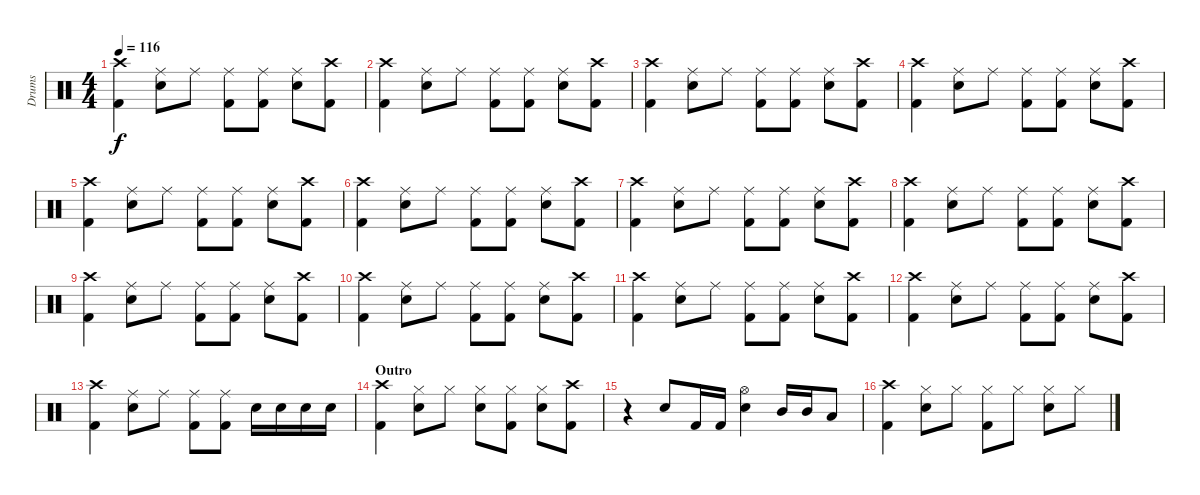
\track ("Drums" "Drums") {instrument percussion}
\staff {score}
\articulation defaults
\ts (4 4)
\tempo 116
\clef neutral
\ks c
("Crash high (hit)" "Kick (hit) 2").4{dy f} ("Ride (middle)" "Snare (hit) 2").8 "Ride (middle)".8 ("Ride (middle)" "Kick (hit) 2").8 ("Ride (middle)" "Kick (hit) 2").8 ("Ride (middle)" "Snare (hit) 2").8 ("Crash high (hit)" "Kick (hit) 2").8 |
("Crash high (hit)" "Kick (hit) 2").4 ("Ride (middle)" "Snare (hit) 2").8 "Ride (middle)".8 ("Ride (middle)" "Kick (hit) 2").8 ("Ride (middle)" "Kick (hit) 2").8 ("Ride (middle)" "Snare (hit) 2").8 ("Crash high (hit)" "Kick (hit) 2").8 |
("Crash high (hit)" "Kick (hit) 2").4 ("Ride (middle)" "Snare (hit) 2").8 "Ride (middle)".8 ("Ride (middle)" "Kick (hit) 2").8 ("Ride (middle)" "Kick (hit) 2").8 ("Ride (middle)" "Snare (hit) 2").8 ("Crash high (hit)" "Kick (hit) 2").8 |
("Crash high (hit)" "Kick (hit) 2").4 ("Ride (middle)" "Snare (hit) 2").8 "Ride (middle)".8 ("Ride (middle)" "Kick (hit) 2").8 ("Ride (middle)" "Kick (hit) 2").8 ("Ride (middle)" "Snare (hit) 2").8 ("Crash high (hit)" "Kick (hit) 2").8 |
("Crash high (hit)" "Kick (hit) 2").4 ("Ride (middle)" "Snare (hit) 2").8 "Ride (middle)".8 ("Ride (middle)" "Kick (hit) 2").8 ("Ride (middle)" "Kick (hit) 2").8 ("Ride (middle)" "Snare (hit) 2").8 ("Crash high (hit)" "Kick (hit) 2").8 |
("Crash high (hit)" "Kick (hit) 2").4 ("Ride (middle)" "Snare (hit) 2").8 "Ride (middle)".8 ("Ride (middle)" "Kick (hit) 2").8 ("Ride (middle)" "Kick (hit) 2").8 ("Ride (middle)" "Snare (hit) 2").8 ("Crash high (hit)" "Kick (hit) 2").8 |
("Crash high (hit)" "Kick (hit) 2").4 ("Ride (middle)" "Snare (hit) 2").8 "Ride (middle)".8 ("Ride (middle)" "Kick (hit) 2").8 ("Ride (middle)" "Kick (hit) 2").8 ("Ride (middle)" "Snare (hit) 2").8 ("Crash high (hit)" "Kick (hit) 2").8 |
("Crash high (hit)" "Kick (hit) 2").4 ("Ride (middle)" "Snare (hit) 2").8 "Ride (middle)".8 ("Ride (middle)" "Kick (hit) 2").8 ("Ride (middle)" "Kick (hit) 2").8 ("Ride (middle)" "Snare (hit) 2").8 ("Crash high (hit)" "Kick (hit) 2").8 |
("Crash high (hit)" "Kick (hit) 2").4 ("Ride (middle)" "Snare (hit) 2").8 "Ride (middle)".8 ("Ride (middle)" "Kick (hit) 2").8 ("Ride (middle)" "Kick (hit) 2").8 ("Ride (middle)" "Snare (hit) 2").8 ("Crash high (hit)" "Kick (hit) 2").8 |
("Crash high (hit)" "Kick (hit) 2").4 ("Ride (middle)" "Snare (hit) 2").8 "Ride (middle)".8 ("Ride (middle)" "Kick (hit) 2").8 ("Ride (middle)" "Kick (hit) 2").8 ("Ride (middle)" "Snare (hit) 2").8 ("Crash high (hit)" "Kick (hit) 2").8 |
("Crash high (hit)" "Kick (hit) 2").4 ("Ride (middle)" "Snare (hit) 2").8 "Ride (middle)".8 ("Ride (middle)" "Kick (hit) 2").8 ("Ride (middle)" "Kick (hit) 2").8 ("Ride (middle)" "Snare (hit) 2").8 ("Crash high (hit)" "Kick (hit) 2").8 |
("Crash high (hit)" "Kick (hit) 2").4 ("Ride (middle)" "Snare (hit) 2").8 "Ride (middle)".8 ("Ride (middle)" "Kick (hit) 2").8 ("Ride (middle)" "Kick (hit) 2").8 ("Ride (middle)" "Snare (hit) 2").8 ("Crash high (hit)" "Kick (hit) 2").8 |
("Crash high (hit)" "Kick (hit) 2").4 ("Ride (middle)" "Snare (hit) 2").8 "Ride (middle)".8 ("Ride (middle)" "Kick (hit) 2").8 ("Ride (middle)" "Kick (hit) 2").8 "Snare (hit) 2".16 "Snare (hit) 2".16 "Snare (hit) 2".16 "Snare (hit) 2".16 |
\section ("" "Outro")
("Crash high (hit)" "Kick (hit) 2").4 ("Hi-Hat (closed)" "Snare (hit) 2").8 "Hi-Hat (closed)".8 ("Hi-Hat (closed)" "Snare (hit) 2").8 ("Hi-Hat (closed)" "Kick (hit) 2").8 ("Hi-Hat (closed)" "Snare (hit) 2").8 ("Crash high (hit)" "Kick (hit) 2").8 |
r.4 "Snare (hit) 2".8 "Kick (hit) 2".16 "Kick (hit) 2".16 ("Hi-Hat (open)" "Snare (hit) 2").4 "Mid Tom (hit)".16 "Mid Tom (hit)".16 "Low Tom (hit)".8 |
("Crash high (hit)" "Kick (hit) 2").4 ("Hi-Hat (closed)" "Snare (hit) 2").8 "Hi-Hat (closed)".8 ("Hi-Hat (closed)" "Kick (hit) 2").8 "Hi-Hat (closed)".8 ("Hi-Hat (closed)" "Snare (hit) 2").8 "Hi-Hat (closed)".8
